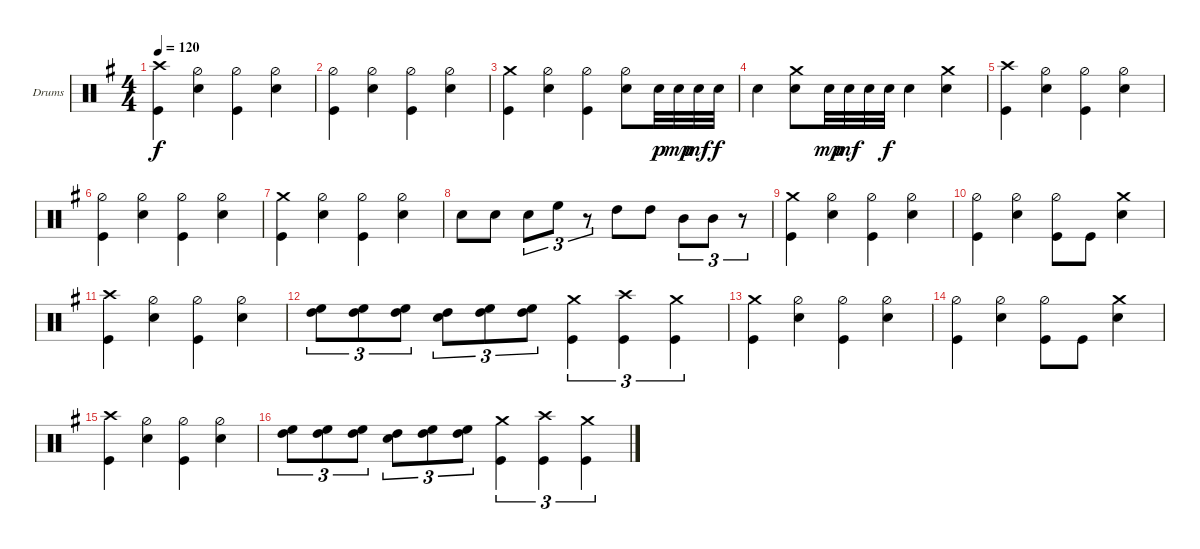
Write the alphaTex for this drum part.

\defaultSystemsLayout 4
\bracketExtendMode groupsimilarinstruments
\firstSystemTrackNameOrientation horizontal
\otherSystemsTrackNameOrientation horizontal
\track ("Drumkit" "Drums") {multiBarRest instrument percussion}
\staff {score}
\articulation defaults
\ts (4 4)
\tempo 120
\clef neutral
\ks g
("Crash high (hit)" "Kick (hit)").4{dy f} ("Hi-Hat (half)" "Snare (hit) 2").4 ("Hi-Hat (half)" "Kick (hit)").4 ("Hi-Hat (half)" "Snare (hit) 2").4 |
("Hi-Hat (half)" "Kick (hit)").4 ("Hi-Hat (half)" "Snare (hit) 2").4 ("Hi-Hat (half)" "Kick (hit)").4 ("Hi-Hat (half)" "Snare (hit) 2").4 |
("Crash medium (hit)" "Kick (hit)").4 ("Hi-Hat (half)" "Snare (hit) 2").4 ("Hi-Hat (half)" "Kick (hit)").4 ("Hi-Hat (half)" "Snare (hit) 2").8 "Snare (hit) 2".32{dy p} "Snare (hit) 2".32{dy mp} "Snare (hit) 2".32{dy mf} "Snare (hit) 2".32{dy f} |
"Snare (hit) 2".4 ("Crash medium (hit)" "Snare (hit) 2").8 "Snare (hit) 2".32{dy mp} "Snare (hit) 2".32{dy mf} "Snare (hit) 2".32 "Snare (hit) 2".32{dy f} "Snare (hit) 2".4 ("Crash medium (hit)" "Snare (hit) 2").4 |
("Crash high (hit)" "Kick (hit)").4 ("Hi-Hat (half)" "Snare (hit) 2").4 ("Hi-Hat (half)" "Kick (hit)").4 ("Hi-Hat (half)" "Snare (hit) 2").4 |
("Hi-Hat (half)" "Kick (hit)").4 ("Hi-Hat (half)" "Snare (hit) 2").4 ("Hi-Hat (half)" "Kick (hit)").4 ("Hi-Hat (half)" "Snare (hit) 2").4 |
("Crash medium (hit)" "Kick (hit)").4 ("Hi-Hat (half)" "Snare (hit) 2").4 ("Hi-Hat (half)" "Kick (hit)").4 ("Hi-Hat (half)" "Snare (hit) 2").4 |
"Snare (hit) 2".8 "Snare (hit) 2".8 "Snare (hit) 2".8{tu (3 2)} "High Floor Tom (hit)".8{tu (3 2)} r.8{tu (3 2)} "High Tom (hit)".8 "High Tom (hit)".8 "Mid Tom (hit)".8{tu (3 2)} "Mid Tom (hit)".8{tu (3 2)} r.8{tu (3 2)} |
("Crash medium (hit)" "Kick (hit)").4 ("Hi-Hat (half)" "Snare (hit) 2").4 ("Hi-Hat (half)" "Kick (hit)").4 ("Hi-Hat (half)" "Snare (hit) 2").4 |
("Hi-Hat (half)" "Kick (hit)").4 ("Hi-Hat (half)" "Snare (hit) 2").4 ("Hi-Hat (half)" "Kick (hit)").8 "Kick (hit)".8 ("Crash medium (hit)" "Snare (hit) 2").4 |
("Crash high (hit)" "Kick (hit)").4 ("Hi-Hat (half)" "Snare (hit) 2").4 ("Hi-Hat (half)" "Kick (hit)").4 ("Hi-Hat (half)" "Snare (hit) 2").4 |
("High Floor Tom (hit)" "High Tom (hit)").8{tu (3 2)} ("High Floor Tom (hit)" "High Tom (hit)").8{tu (3 2)} ("High Floor Tom (hit)" "High Tom (hit)").8{tu (3 2)} ("Snare (hit) 2" "High Tom (hit)").8{tu (3 2)} ("High Floor Tom (hit)" "High Tom (hit)").8{tu (3 2)} ("High Floor Tom (hit)" "High Tom (hit)").8{tu (3 2)} ("Crash medium (hit)" "Kick (hit)").4{tu (3 2)} ("Crash high (hit)" "Kick (hit)").4{tu (3 2)} ("Crash medium (hit)" "Kick (hit)").4{tu (3 2)} |
("Crash medium (hit)" "Kick (hit)").4 ("Hi-Hat (half)" "Snare (hit) 2").4 ("Hi-Hat (half)" "Kick (hit)").4 ("Hi-Hat (half)" "Snare (hit) 2").4 |
("Hi-Hat (half)" "Kick (hit)").4 ("Hi-Hat (half)" "Snare (hit) 2").4 ("Hi-Hat (half)" "Kick (hit)").8 "Kick (hit)".8 ("Crash medium (hit)" "Snare (hit) 2").4 |
("Crash high (hit)" "Kick (hit)").4 ("Hi-Hat (half)" "Snare (hit) 2").4 ("Hi-Hat (half)" "Kick (hit)").4 ("Hi-Hat (half)" "Snare (hit) 2").4 |
("High Floor Tom (hit)" "High Tom (hit)").8{tu (3 2)} ("High Floor Tom (hit)" "High Tom (hit)").8{tu (3 2)} ("High Floor Tom (hit)" "High Tom (hit)").8{tu (3 2)} ("Snare (hit) 2" "High Tom (hit)").8{tu (3 2)} ("High Floor Tom (hit)" "High Tom (hit)").8{tu (3 2)} ("High Floor Tom (hit)" "High Tom (hit)").8{tu (3 2)} ("Crash medium (hit)" "Kick (hit)").4{tu (3 2)} ("Crash high (hit)" "Kick (hit)").4{tu (3 2)} ("Crash medium (hit)" "Kick (hit)").4{tu (3 2)}
